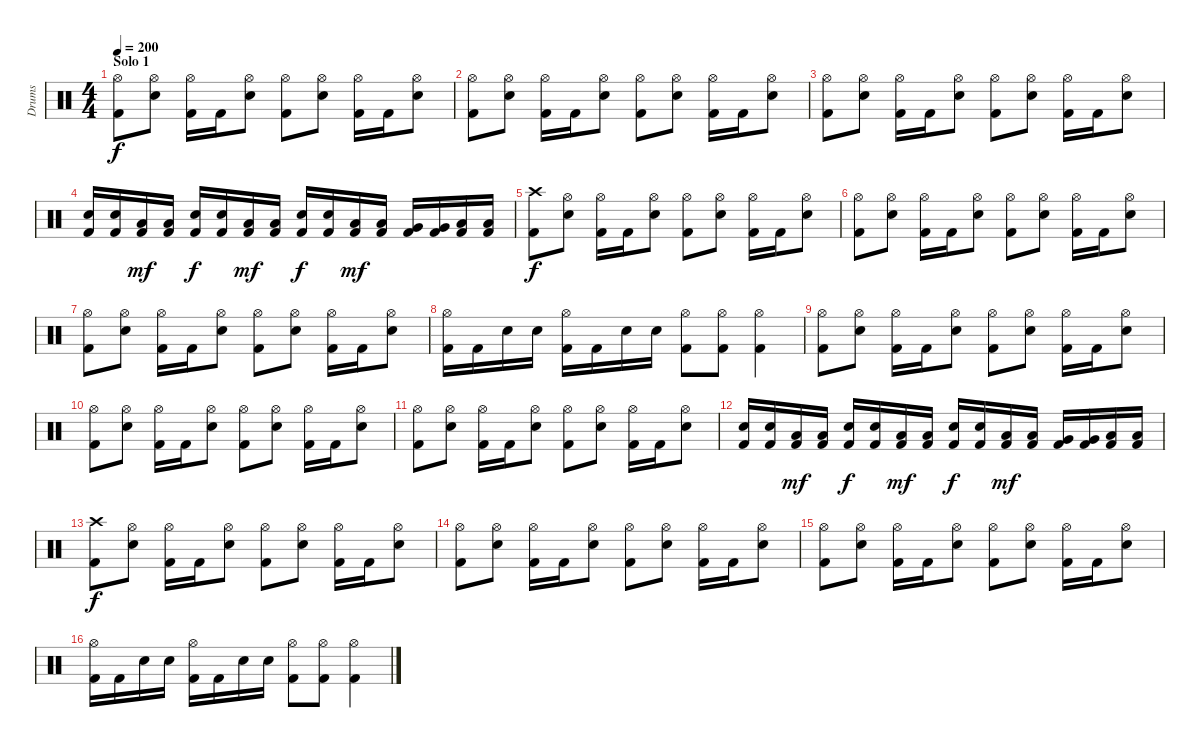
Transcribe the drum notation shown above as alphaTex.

\track ("Drums" "Drums") {instrument percussion}
\staff {score}
\articulation defaults
\ts (4 4)
\section ("" "Solo 1")
\tempo 200
\clef neutral
\ks c
("Hi-Hat (open)" "Kick (hit) 2").8{dy f} ("Hi-Hat (open)" "Snare (hit) 2").8 ("Hi-Hat (open)" "Kick (hit) 2").16 "Kick (hit) 2".16 ("Hi-Hat (open)" "Snare (hit) 2").8 ("Hi-Hat (open)" "Kick (hit) 2").8 ("Hi-Hat (open)" "Snare (hit) 2").8 ("Hi-Hat (open)" "Kick (hit) 2").16 "Kick (hit) 2".16 ("Hi-Hat (open)" "Snare (hit) 2").8 |
("Hi-Hat (open)" "Kick (hit) 2").8 ("Hi-Hat (open)" "Snare (hit) 2").8 ("Hi-Hat (open)" "Kick (hit) 2").16 "Kick (hit) 2".16 ("Hi-Hat (open)" "Snare (hit) 2").8 ("Hi-Hat (open)" "Kick (hit) 2").8 ("Hi-Hat (open)" "Snare (hit) 2").8 ("Hi-Hat (open)" "Kick (hit) 2").16 "Kick (hit) 2".16 ("Hi-Hat (open)" "Snare (hit) 2").8 |
("Hi-Hat (open)" "Kick (hit) 2").8 ("Hi-Hat (open)" "Snare (hit) 2").8 ("Hi-Hat (open)" "Kick (hit) 2").16 "Kick (hit) 2".16 ("Hi-Hat (open)" "Snare (hit) 2").8 ("Hi-Hat (open)" "Kick (hit) 2").8 ("Hi-Hat (open)" "Snare (hit) 2").8 ("Hi-Hat (open)" "Kick (hit) 2").16 "Kick (hit) 2".16 ("Hi-Hat (open)" "Snare (hit) 2").8 |
("Snare (hit) 2" "Kick (hit) 2").16 ("Snare (hit) 2" "Kick (hit) 2").16 ("Low Floor Tom (hit)" "Kick (hit) 2").16{dy mf} ("Low Floor Tom (hit)" "Kick (hit) 2").16 ("Snare (hit) 2" "Kick (hit) 2").16{dy f} ("Snare (hit) 2" "Kick (hit) 2").16 ("Low Floor Tom (hit)" "Kick (hit) 2").16{dy mf} ("Low Floor Tom (hit)" "Kick (hit) 2").16 ("Snare (hit) 2" "Kick (hit) 2").16{dy f} ("Snare (hit) 2" "Kick (hit) 2").16 ("Low Tom (hit)" "Kick (hit) 2").16{dy mf} ("Low Tom (hit)" "Kick (hit) 2").16 ("Very Low Tom (hit)" "Kick (hit) 2").16 ("Very Low Tom (hit)" "Kick (hit) 2").16 ("Low Floor Tom (hit)" "Kick (hit) 2").16 ("Low Floor Tom (hit)" "Kick (hit) 2").16 |
("Crash high (hit)" "Kick (hit) 2").8{dy f} ("Hi-Hat (open)" "Snare (hit) 2").8 ("Hi-Hat (open)" "Kick (hit) 2").16 "Kick (hit) 2".16 ("Hi-Hat (open)" "Snare (hit) 2").8 ("Hi-Hat (open)" "Kick (hit) 2").8 ("Hi-Hat (open)" "Snare (hit) 2").8 ("Hi-Hat (open)" "Kick (hit) 2").16 "Kick (hit) 2".16 ("Hi-Hat (open)" "Snare (hit) 2").8 |
("Hi-Hat (open)" "Kick (hit) 2").8 ("Hi-Hat (open)" "Snare (hit) 2").8 ("Hi-Hat (open)" "Kick (hit) 2").16 "Kick (hit) 2".16 ("Hi-Hat (open)" "Snare (hit) 2").8 ("Hi-Hat (open)" "Kick (hit) 2").8 ("Hi-Hat (open)" "Snare (hit) 2").8 ("Hi-Hat (open)" "Kick (hit) 2").16 "Kick (hit) 2".16 ("Hi-Hat (open)" "Snare (hit) 2").8 |
("Hi-Hat (open)" "Kick (hit) 2").8 ("Hi-Hat (open)" "Snare (hit) 2").8 ("Hi-Hat (open)" "Kick (hit) 2").16 "Kick (hit) 2".16 ("Hi-Hat (open)" "Snare (hit) 2").8 ("Hi-Hat (open)" "Kick (hit) 2").8 ("Hi-Hat (open)" "Snare (hit) 2").8 ("Hi-Hat (open)" "Kick (hit) 2").16 "Kick (hit) 2".16 ("Hi-Hat (open)" "Snare (hit) 2").8 |
("Hi-Hat (open)" "Kick (hit) 2").16 "Kick (hit) 2".16 "Snare (hit) 2".16 "Snare (hit) 2".16 ("Hi-Hat (open)" "Kick (hit) 2").16 "Kick (hit) 2".16 "Snare (hit) 2".16 "Snare (hit) 2".16 ("Hi-Hat (open)" "Kick (hit) 2").8 ("Hi-Hat (open)" "Kick (hit) 2").8 ("Hi-Hat (open)" "Kick (hit) 2").4 |
("Hi-Hat (open)" "Kick (hit) 2").8 ("Hi-Hat (open)" "Snare (hit) 2").8 ("Hi-Hat (open)" "Kick (hit) 2").16 "Kick (hit) 2".16 ("Hi-Hat (open)" "Snare (hit) 2").8 ("Hi-Hat (open)" "Kick (hit) 2").8 ("Hi-Hat (open)" "Snare (hit) 2").8 ("Hi-Hat (open)" "Kick (hit) 2").16 "Kick (hit) 2".16 ("Hi-Hat (open)" "Snare (hit) 2").8 |
("Hi-Hat (open)" "Kick (hit) 2").8 ("Hi-Hat (open)" "Snare (hit) 2").8 ("Hi-Hat (open)" "Kick (hit) 2").16 "Kick (hit) 2".16 ("Hi-Hat (open)" "Snare (hit) 2").8 ("Hi-Hat (open)" "Kick (hit) 2").8 ("Hi-Hat (open)" "Snare (hit) 2").8 ("Hi-Hat (open)" "Kick (hit) 2").16 "Kick (hit) 2".16 ("Hi-Hat (open)" "Snare (hit) 2").8 |
("Hi-Hat (open)" "Kick (hit) 2").8 ("Hi-Hat (open)" "Snare (hit) 2").8 ("Hi-Hat (open)" "Kick (hit) 2").16 "Kick (hit) 2".16 ("Hi-Hat (open)" "Snare (hit) 2").8 ("Hi-Hat (open)" "Kick (hit) 2").8 ("Hi-Hat (open)" "Snare (hit) 2").8 ("Hi-Hat (open)" "Kick (hit) 2").16 "Kick (hit) 2".16 ("Hi-Hat (open)" "Snare (hit) 2").8 |
("Snare (hit) 2" "Kick (hit) 2").16 ("Snare (hit) 2" "Kick (hit) 2").16 ("Low Floor Tom (hit)" "Kick (hit) 2").16{dy mf} ("Low Floor Tom (hit)" "Kick (hit) 2").16 ("Snare (hit) 2" "Kick (hit) 2").16{dy f} ("Snare (hit) 2" "Kick (hit) 2").16 ("Low Floor Tom (hit)" "Kick (hit) 2").16{dy mf} ("Low Floor Tom (hit)" "Kick (hit) 2").16 ("Snare (hit) 2" "Kick (hit) 2").16{dy f} ("Snare (hit) 2" "Kick (hit) 2").16 ("Low Tom (hit)" "Kick (hit) 2").16{dy mf} ("Low Tom (hit)" "Kick (hit) 2").16 ("Very Low Tom (hit)" "Kick (hit) 2").16 ("Very Low Tom (hit)" "Kick (hit) 2").16 ("Low Floor Tom (hit)" "Kick (hit) 2").16 ("Low Floor Tom (hit)" "Kick (hit) 2").16 |
("Crash high (hit)" "Kick (hit) 2").8{dy f} ("Hi-Hat (open)" "Snare (hit) 2").8 ("Hi-Hat (open)" "Kick (hit) 2").16 "Kick (hit) 2".16 ("Hi-Hat (open)" "Snare (hit) 2").8 ("Hi-Hat (open)" "Kick (hit) 2").8 ("Hi-Hat (open)" "Snare (hit) 2").8 ("Hi-Hat (open)" "Kick (hit) 2").16 "Kick (hit) 2".16 ("Hi-Hat (open)" "Snare (hit) 2").8 |
("Hi-Hat (open)" "Kick (hit) 2").8 ("Hi-Hat (open)" "Snare (hit) 2").8 ("Hi-Hat (open)" "Kick (hit) 2").16 "Kick (hit) 2".16 ("Hi-Hat (open)" "Snare (hit) 2").8 ("Hi-Hat (open)" "Kick (hit) 2").8 ("Hi-Hat (open)" "Snare (hit) 2").8 ("Hi-Hat (open)" "Kick (hit) 2").16 "Kick (hit) 2".16 ("Hi-Hat (open)" "Snare (hit) 2").8 |
("Hi-Hat (open)" "Kick (hit) 2").8 ("Hi-Hat (open)" "Snare (hit) 2").8 ("Hi-Hat (open)" "Kick (hit) 2").16 "Kick (hit) 2".16 ("Hi-Hat (open)" "Snare (hit) 2").8 ("Hi-Hat (open)" "Kick (hit) 2").8 ("Hi-Hat (open)" "Snare (hit) 2").8 ("Hi-Hat (open)" "Kick (hit) 2").16 "Kick (hit) 2".16 ("Hi-Hat (open)" "Snare (hit) 2").8 |
("Hi-Hat (open)" "Kick (hit) 2").16 "Kick (hit) 2".16 "Snare (hit) 2".16 "Snare (hit) 2".16 ("Hi-Hat (open)" "Kick (hit) 2").16 "Kick (hit) 2".16 "Snare (hit) 2".16 "Snare (hit) 2".16 ("Hi-Hat (open)" "Kick (hit) 2").8 ("Hi-Hat (open)" "Kick (hit) 2").8 ("Hi-Hat (open)" "Kick (hit) 2").4
